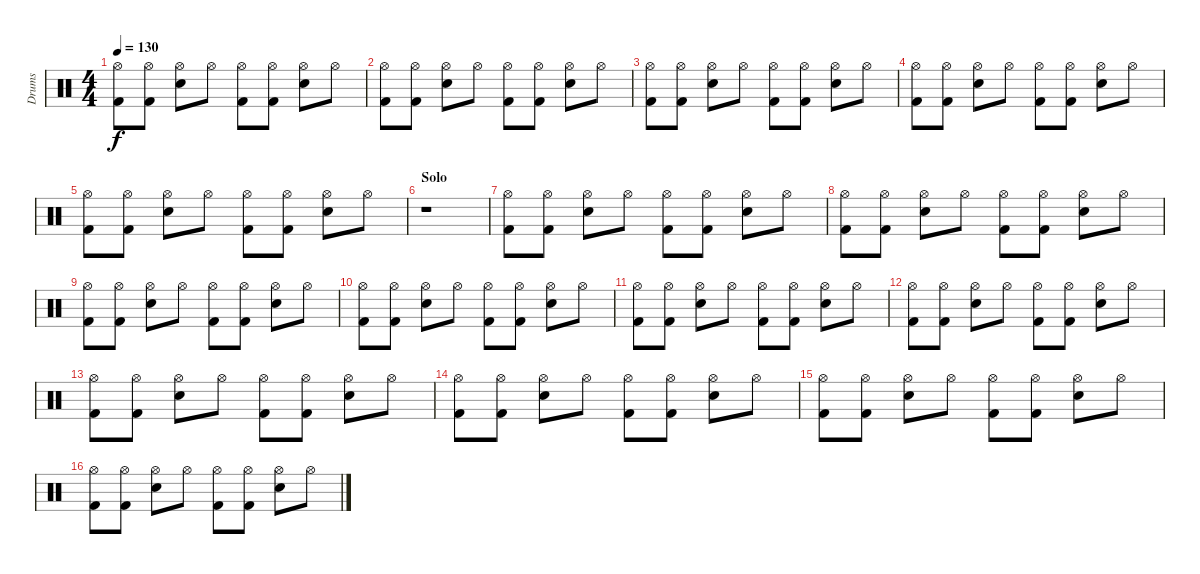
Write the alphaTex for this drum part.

\track ("Drums" "Drums") {instrument percussion}
\staff {score}
\articulation defaults
\ts (4 4)
\tempo 130
\clef neutral
\ks c
("Hi-Hat (open)" "Kick (hit) 2").8{dy f} ("Hi-Hat (open)" "Kick (hit) 2").8 ("Hi-Hat (open)" "Snare (hit) 2").8 "Hi-Hat (open)".8 ("Hi-Hat (open)" "Kick (hit) 2").8 ("Hi-Hat (open)" "Kick (hit) 2").8 ("Hi-Hat (open)" "Snare (hit) 2").8 "Hi-Hat (open)".8 |
("Hi-Hat (open)" "Kick (hit) 2").8 ("Hi-Hat (open)" "Kick (hit) 2").8 ("Hi-Hat (open)" "Snare (hit) 2").8 "Hi-Hat (open)".8 ("Hi-Hat (open)" "Kick (hit) 2").8 ("Hi-Hat (open)" "Kick (hit) 2").8 ("Hi-Hat (open)" "Snare (hit) 2").8 "Hi-Hat (open)".8 |
("Hi-Hat (open)" "Kick (hit) 2").8 ("Hi-Hat (open)" "Kick (hit) 2").8 ("Hi-Hat (open)" "Snare (hit) 2").8 "Hi-Hat (open)".8 ("Hi-Hat (open)" "Kick (hit) 2").8 ("Hi-Hat (open)" "Kick (hit) 2").8 ("Hi-Hat (open)" "Snare (hit) 2").8 "Hi-Hat (open)".8 |
("Hi-Hat (open)" "Kick (hit) 2").8 ("Hi-Hat (open)" "Kick (hit) 2").8 ("Hi-Hat (open)" "Snare (hit) 2").8 "Hi-Hat (open)".8 ("Hi-Hat (open)" "Kick (hit) 2").8 ("Hi-Hat (open)" "Kick (hit) 2").8 ("Hi-Hat (open)" "Snare (hit) 2").8 "Hi-Hat (open)".8 |
("Hi-Hat (open)" "Kick (hit) 2").8 ("Hi-Hat (open)" "Kick (hit) 2").8 ("Hi-Hat (open)" "Snare (hit) 2").8 "Hi-Hat (open)".8 ("Hi-Hat (open)" "Kick (hit) 2").8 ("Hi-Hat (open)" "Kick (hit) 2").8 ("Hi-Hat (open)" "Snare (hit) 2").8 "Hi-Hat (open)".8 |
\section ("" "Solo")
r.1 |
("Hi-Hat (open)" "Kick (hit) 2").8 ("Hi-Hat (open)" "Kick (hit) 2").8 ("Hi-Hat (open)" "Snare (hit) 2").8 "Hi-Hat (open)".8 ("Hi-Hat (open)" "Kick (hit) 2").8 ("Hi-Hat (open)" "Kick (hit) 2").8 ("Hi-Hat (open)" "Snare (hit) 2").8 "Hi-Hat (open)".8 |
("Hi-Hat (open)" "Kick (hit) 2").8 ("Hi-Hat (open)" "Kick (hit) 2").8 ("Hi-Hat (open)" "Snare (hit) 2").8 "Hi-Hat (open)".8 ("Hi-Hat (open)" "Kick (hit) 2").8 ("Hi-Hat (open)" "Kick (hit) 2").8 ("Hi-Hat (open)" "Snare (hit) 2").8 "Hi-Hat (open)".8 |
("Hi-Hat (open)" "Kick (hit) 2").8 ("Hi-Hat (open)" "Kick (hit) 2").8 ("Hi-Hat (open)" "Snare (hit) 2").8 "Hi-Hat (open)".8 ("Hi-Hat (open)" "Kick (hit) 2").8 ("Hi-Hat (open)" "Kick (hit) 2").8 ("Hi-Hat (open)" "Snare (hit) 2").8 "Hi-Hat (open)".8 |
("Hi-Hat (open)" "Kick (hit) 2").8 ("Hi-Hat (open)" "Kick (hit) 2").8 ("Hi-Hat (open)" "Snare (hit) 2").8 "Hi-Hat (open)".8 ("Hi-Hat (open)" "Kick (hit) 2").8 ("Hi-Hat (open)" "Kick (hit) 2").8 ("Hi-Hat (open)" "Snare (hit) 2").8 "Hi-Hat (open)".8 |
("Hi-Hat (open)" "Kick (hit) 2").8 ("Hi-Hat (open)" "Kick (hit) 2").8 ("Hi-Hat (open)" "Snare (hit) 2").8 "Hi-Hat (open)".8 ("Hi-Hat (open)" "Kick (hit) 2").8 ("Hi-Hat (open)" "Kick (hit) 2").8 ("Hi-Hat (open)" "Snare (hit) 2").8 "Hi-Hat (open)".8 |
("Hi-Hat (open)" "Kick (hit) 2").8 ("Hi-Hat (open)" "Kick (hit) 2").8 ("Hi-Hat (open)" "Snare (hit) 2").8 "Hi-Hat (open)".8 ("Hi-Hat (open)" "Kick (hit) 2").8 ("Hi-Hat (open)" "Kick (hit) 2").8 ("Hi-Hat (open)" "Snare (hit) 2").8 "Hi-Hat (open)".8 |
("Hi-Hat (open)" "Kick (hit) 2").8 ("Hi-Hat (open)" "Kick (hit) 2").8 ("Hi-Hat (open)" "Snare (hit) 2").8 "Hi-Hat (open)".8 ("Hi-Hat (open)" "Kick (hit) 2").8 ("Hi-Hat (open)" "Kick (hit) 2").8 ("Hi-Hat (open)" "Snare (hit) 2").8 "Hi-Hat (open)".8 |
("Hi-Hat (open)" "Kick (hit) 2").8 ("Hi-Hat (open)" "Kick (hit) 2").8 ("Hi-Hat (open)" "Snare (hit) 2").8 "Hi-Hat (open)".8 ("Hi-Hat (open)" "Kick (hit) 2").8 ("Hi-Hat (open)" "Kick (hit) 2").8 ("Hi-Hat (open)" "Snare (hit) 2").8 "Hi-Hat (open)".8 |
("Hi-Hat (open)" "Kick (hit) 2").8 ("Hi-Hat (open)" "Kick (hit) 2").8 ("Hi-Hat (open)" "Snare (hit) 2").8 "Hi-Hat (open)".8 ("Hi-Hat (open)" "Kick (hit) 2").8 ("Hi-Hat (open)" "Kick (hit) 2").8 ("Hi-Hat (open)" "Snare (hit) 2").8 "Hi-Hat (open)".8 |
("Hi-Hat (open)" "Kick (hit) 2").8 ("Hi-Hat (open)" "Kick (hit) 2").8 ("Hi-Hat (open)" "Snare (hit) 2").8 "Hi-Hat (open)".8 ("Hi-Hat (open)" "Kick (hit) 2").8 ("Hi-Hat (open)" "Kick (hit) 2").8 ("Hi-Hat (open)" "Snare (hit) 2").8 "Hi-Hat (open)".8
